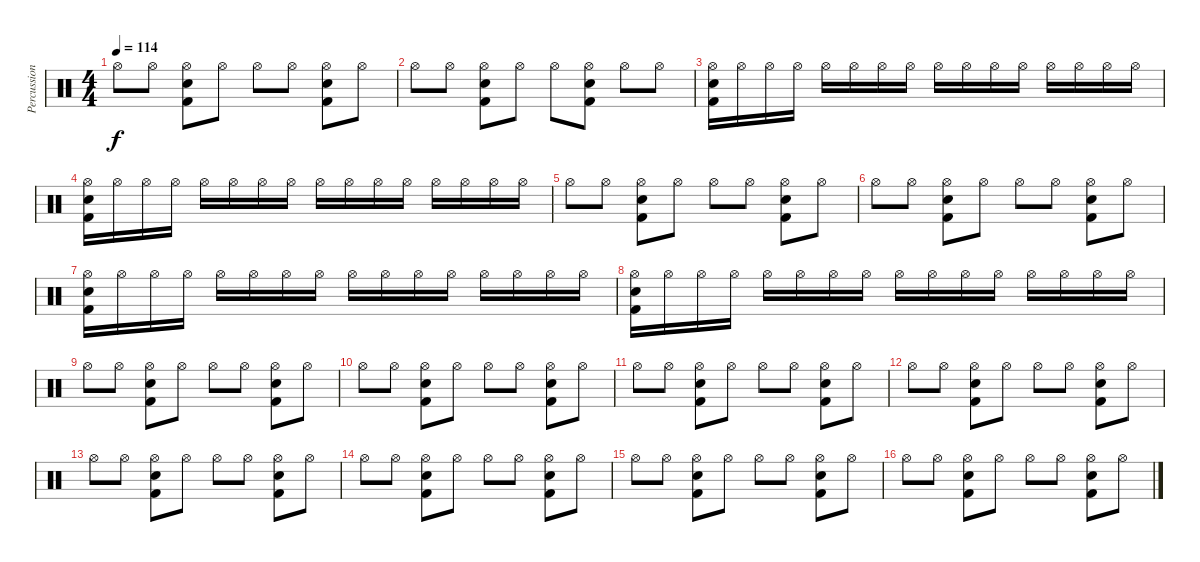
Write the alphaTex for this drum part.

\track ("Percussion" "Percussion") {instrument percussion}
\staff {score}
\articulation defaults
\ts (4 4)
\tempo 114
\clef neutral
\ks c "Hi-Hat (open)".8{dy f} "Hi-Hat (open)".8
("Hi-Hat (open)" "Snare (hit) 2" "Kick (hit) 2").8 "Hi-Hat (open)".8 "Hi-Hat (open)".8 "Hi-Hat (open)".8 ("Hi-Hat (open)" "Snare (hit) 2" "Kick (hit) 2").8 "Hi-Hat (open)".8 |
"Hi-Hat (open)".8 "Hi-Hat (open)".8 ("Hi-Hat (open)" "Snare (hit) 2" "Kick (hit) 2").8 "Hi-Hat (open)".8 "Hi-Hat (open)".8 ("Hi-Hat (open)" "Snare (hit) 2" "Kick (hit) 2").8 "Hi-Hat (open)".8 "Hi-Hat (open)".8 |
("Hi-Hat (open)" "Snare (hit) 2" "Kick (hit) 2").16 "Hi-Hat (open)".16 "Hi-Hat (open)".16 "Hi-Hat (open)".16 "Hi-Hat (open)".16 "Hi-Hat (open)".16 "Hi-Hat (open)".16 "Hi-Hat (open)".16 "Hi-Hat (open)".16 "Hi-Hat (open)".16 "Hi-Hat (open)".16 "Hi-Hat (open)".16 "Hi-Hat (open)".16 "Hi-Hat (open)".16 "Hi-Hat (open)".16 "Hi-Hat (open)".16 |
("Hi-Hat (open)" "Snare (hit) 2" "Kick (hit) 2").16 "Hi-Hat (open)".16 "Hi-Hat (open)".16 "Hi-Hat (open)".16 "Hi-Hat (open)".16 "Hi-Hat (open)".16 "Hi-Hat (open)".16 "Hi-Hat (open)".16 "Hi-Hat (open)".16 "Hi-Hat (open)".16 "Hi-Hat (open)".16 "Hi-Hat (open)".16 "Hi-Hat (open)".16 "Hi-Hat (open)".16 "Hi-Hat (open)".16 "Hi-Hat (open)".16 |
"Hi-Hat (open)".8 "Hi-Hat (open)".8 ("Hi-Hat (open)" "Snare (hit) 2" "Kick (hit) 2").8 "Hi-Hat (open)".8 "Hi-Hat (open)".8 "Hi-Hat (open)".8 ("Hi-Hat (open)" "Snare (hit) 2" "Kick (hit) 2").8 "Hi-Hat (open)".8 |
"Hi-Hat (open)".8 "Hi-Hat (open)".8 ("Hi-Hat (open)" "Snare (hit) 2" "Kick (hit) 2").8 "Hi-Hat (open)".8 "Hi-Hat (open)".8 "Hi-Hat (open)".8 ("Hi-Hat (open)" "Snare (hit) 2" "Kick (hit) 2").8 "Hi-Hat (open)".8 |
("Hi-Hat (open)" "Snare (hit) 2" "Kick (hit) 2").16 "Hi-Hat (open)".16 "Hi-Hat (open)".16 "Hi-Hat (open)".16 "Hi-Hat (open)".16 "Hi-Hat (open)".16 "Hi-Hat (open)".16 "Hi-Hat (open)".16 "Hi-Hat (open)".16 "Hi-Hat (open)".16 "Hi-Hat (open)".16 "Hi-Hat (open)".16 "Hi-Hat (open)".16 "Hi-Hat (open)".16 "Hi-Hat (open)".16 "Hi-Hat (open)".16 |
("Hi-Hat (open)" "Snare (hit) 2" "Kick (hit) 2").16 "Hi-Hat (open)".16 "Hi-Hat (open)".16 "Hi-Hat (open)".16 "Hi-Hat (open)".16 "Hi-Hat (open)".16 "Hi-Hat (open)".16 "Hi-Hat (open)".16 "Hi-Hat (open)".16 "Hi-Hat (open)".16 "Hi-Hat (open)".16 "Hi-Hat (open)".16 "Hi-Hat (open)".16 "Hi-Hat (open)".16 "Hi-Hat (open)".16 "Hi-Hat (open)".16 |
"Hi-Hat (open)".8 "Hi-Hat (open)".8 ("Hi-Hat (open)" "Snare (hit) 2" "Kick (hit) 2").8 "Hi-Hat (open)".8 "Hi-Hat (open)".8 "Hi-Hat (open)".8 ("Hi-Hat (open)" "Snare (hit) 2" "Kick (hit) 2").8 "Hi-Hat (open)".8 |
"Hi-Hat (open)".8 "Hi-Hat (open)".8 ("Hi-Hat (open)" "Snare (hit) 2" "Kick (hit) 2").8 "Hi-Hat (open)".8 "Hi-Hat (open)".8 "Hi-Hat (open)".8 ("Hi-Hat (open)" "Snare (hit) 2" "Kick (hit) 2").8 "Hi-Hat (open)".8 |
"Hi-Hat (open)".8 "Hi-Hat (open)".8 ("Hi-Hat (open)" "Snare (hit) 2" "Kick (hit) 2").8 "Hi-Hat (open)".8 "Hi-Hat (open)".8 "Hi-Hat (open)".8 ("Hi-Hat (open)" "Snare (hit) 2" "Kick (hit) 2").8 "Hi-Hat (open)".8 |
"Hi-Hat (open)".8 "Hi-Hat (open)".8 ("Hi-Hat (open)" "Snare (hit) 2" "Kick (hit) 2").8 "Hi-Hat (open)".8 "Hi-Hat (open)".8 "Hi-Hat (open)".8 ("Hi-Hat (open)" "Snare (hit) 2" "Kick (hit) 2").8 "Hi-Hat (open)".8 |
"Hi-Hat (open)".8 "Hi-Hat (open)".8 ("Hi-Hat (open)" "Snare (hit) 2" "Kick (hit) 2").8 "Hi-Hat (open)".8 "Hi-Hat (open)".8 "Hi-Hat (open)".8 ("Hi-Hat (open)" "Snare (hit) 2" "Kick (hit) 2").8 "Hi-Hat (open)".8 |
"Hi-Hat (open)".8 "Hi-Hat (open)".8 ("Hi-Hat (open)" "Snare (hit) 2" "Kick (hit) 2").8 "Hi-Hat (open)".8 "Hi-Hat (open)".8 "Hi-Hat (open)".8 ("Hi-Hat (open)" "Snare (hit) 2" "Kick (hit) 2").8 "Hi-Hat (open)".8 |
"Hi-Hat (open)".8 "Hi-Hat (open)".8 ("Hi-Hat (open)" "Snare (hit) 2" "Kick (hit) 2").8 "Hi-Hat (open)".8 "Hi-Hat (open)".8 "Hi-Hat (open)".8 ("Hi-Hat (open)" "Snare (hit) 2" "Kick (hit) 2").8 "Hi-Hat (open)".8 |
"Hi-Hat (open)".8 "Hi-Hat (open)".8 ("Hi-Hat (open)" "Snare (hit) 2" "Kick (hit) 2").8 "Hi-Hat (open)".8 "Hi-Hat (open)".8 "Hi-Hat (open)".8 ("Hi-Hat (open)" "Snare (hit) 2" "Kick (hit) 2").8 "Hi-Hat (open)".8
